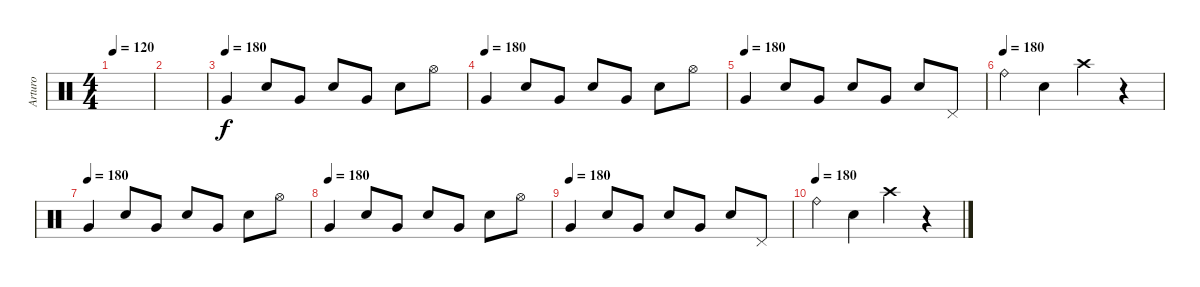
\track ("Arturo" "Arturo") {instrument percussion}
\staff {score}
\articulation defaults
\ts (4 4)
\tempo 120
\clef neutral
\ks c
|
|
\tempo (180)
"Very Low Tom (hit)".4 "Electric Snare (hit)".8 "Very Low Tom (hit)".8 "Electric Snare (hit)".8 "Very Low Tom (hit)".8 "Electric Snare (hit)".8 "Hi-Hat (open)".8 |
\tempo (180)
"Very Low Tom (hit)".4 "Electric Snare (hit)".8 "Very Low Tom (hit)".8 "Electric Snare (hit)".8 "Very Low Tom (hit)".8 "Electric Snare (hit)".8 "Hi-Hat (open)".8 |
\tempo (180)
"Very Low Tom (hit)".4 "Electric Snare (hit)".8 "Very Low Tom (hit)".8 "Electric Snare (hit)".8 "Very Low Tom (hit)".8 "Electric Snare (hit)".8 "Pedal Hi-Hat (hit)".8 |
\tempo (180)
"Ride (bell)".4 "Electric Snare (hit)".4 "Crash high (hit)".4 r.4 |
\tempo (180)
"Very Low Tom (hit)".4 "Electric Snare (hit)".8 "Very Low Tom (hit)".8 "Electric Snare (hit)".8 "Very Low Tom (hit)".8 "Electric Snare (hit)".8 "Hi-Hat (open)".8 |
\tempo (180)
"Very Low Tom (hit)".4 "Electric Snare (hit)".8 "Very Low Tom (hit)".8 "Electric Snare (hit)".8 "Very Low Tom (hit)".8 "Electric Snare (hit)".8 "Hi-Hat (open)".8 |
\tempo (180)
"Very Low Tom (hit)".4 "Electric Snare (hit)".8 "Very Low Tom (hit)".8 "Electric Snare (hit)".8 "Very Low Tom (hit)".8 "Electric Snare (hit)".8 "Pedal Hi-Hat (hit)".8 |
\tempo (180)
"Ride (bell)".4 "Electric Snare (hit)".4 "Crash high (hit)".4 r.4
